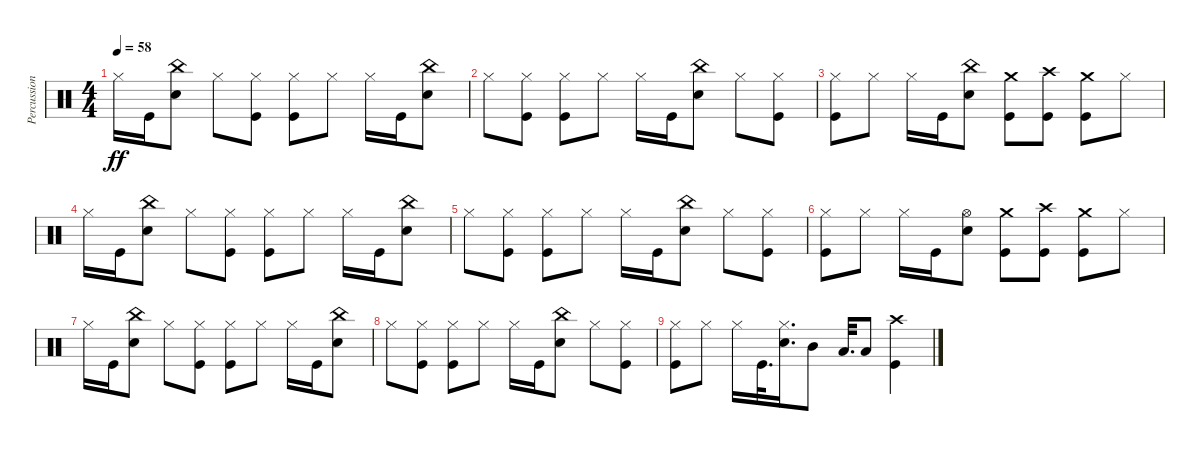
\track ("Percussion" "Percussion") {instrument percussion}
\staff {score}
\articulation defaults
\ts (4 4)
\tempo 58
\clef neutral
\ks c "Hi-Hat (closed)".16{dy ff} "Kick (hit)".16
("China (hit)" "Electric Snare (hit)").8 "Hi-Hat (closed)".8 ("Hi-Hat (closed)" "Kick (hit)").8 ("Hi-Hat (closed)" "Kick (hit)").8 "Hi-Hat (closed)".8 "Hi-Hat (closed)".16 "Kick (hit)".16 ("China (hit)" "Electric Snare (hit)").8 |
"Hi-Hat (closed)".8 ("Hi-Hat (closed)" "Kick (hit)").8 ("Hi-Hat (closed)" "Kick (hit)").8 "Hi-Hat (closed)".8 "Hi-Hat (closed)".16 "Kick (hit)".16 ("China (hit)" "Electric Snare (hit)").8 "Hi-Hat (closed)".8 ("Hi-Hat (closed)" "Kick (hit)").8 |
("Hi-Hat (closed)" "Kick (hit)").8 "Hi-Hat (closed)".8 "Hi-Hat (closed)".16 "Kick (hit)".16 ("China (hit)" "Electric Snare (hit)").8 ("Crash medium (hit)" "Kick (hit)").8 ("Crash high (hit)" "Kick (hit)").8 ("Crash medium (hit)" "Kick (hit)").8 "Hi-Hat (closed)".8 |
"Hi-Hat (closed)".16 "Kick (hit)".16 ("China (hit)" "Electric Snare (hit)").8 "Hi-Hat (closed)".8 ("Hi-Hat (closed)" "Kick (hit)").8 ("Hi-Hat (closed)" "Kick (hit)").8 "Hi-Hat (closed)".8 "Hi-Hat (closed)".16 "Kick (hit)".16 ("China (hit)" "Electric Snare (hit)").8 |
"Hi-Hat (closed)".8 ("Hi-Hat (closed)" "Kick (hit)").8 ("Hi-Hat (closed)" "Kick (hit)").8 "Hi-Hat (closed)".8 "Hi-Hat (closed)".16 "Kick (hit)".16 ("China (hit)" "Electric Snare (hit)").8 "Hi-Hat (closed)".8 ("Hi-Hat (closed)" "Kick (hit)").8 |
("Hi-Hat (closed)" "Kick (hit)").8 "Hi-Hat (closed)".8 "Hi-Hat (closed)".16 "Kick (hit)".16 ("Hi-Hat (open)" "Electric Snare (hit)").8 ("Crash medium (hit)" "Kick (hit)").8 ("Crash high (hit)" "Kick (hit)").8 ("Crash medium (hit)" "Kick (hit)").8 "Hi-Hat (closed)".8 |
"Hi-Hat (closed)".16 "Kick (hit)".16 ("China (hit)" "Electric Snare (hit)").8 "Hi-Hat (closed)".8 ("Hi-Hat (closed)" "Kick (hit)").8 ("Hi-Hat (closed)" "Kick (hit)").8 "Hi-Hat (closed)".8 "Hi-Hat (closed)".16 "Kick (hit)".16 ("China (hit)" "Electric Snare (hit)").8 |
"Hi-Hat (closed)".8 ("Hi-Hat (closed)" "Kick (hit)").8 ("Hi-Hat (closed)" "Kick (hit)").8 "Hi-Hat (closed)".8 "Hi-Hat (closed)".16 "Kick (hit)".16 ("China (hit)" "Electric Snare (hit)").8 "Hi-Hat (closed)".8 ("Hi-Hat (closed)" "Kick (hit)").8 |
("Hi-Hat (closed)" "Kick (hit)").8 "Hi-Hat (closed)".8 "Hi-Hat (closed)".16 "Kick (hit)".32{d} ("Hi-Hat (closed)" "Electric Snare (hit)").16{d} "Mid Tom (hit)".8 "Low Tom (hit)".32{d} "Low Tom (hit)".8 ("Crash high (hit)" "Kick (hit)").4
